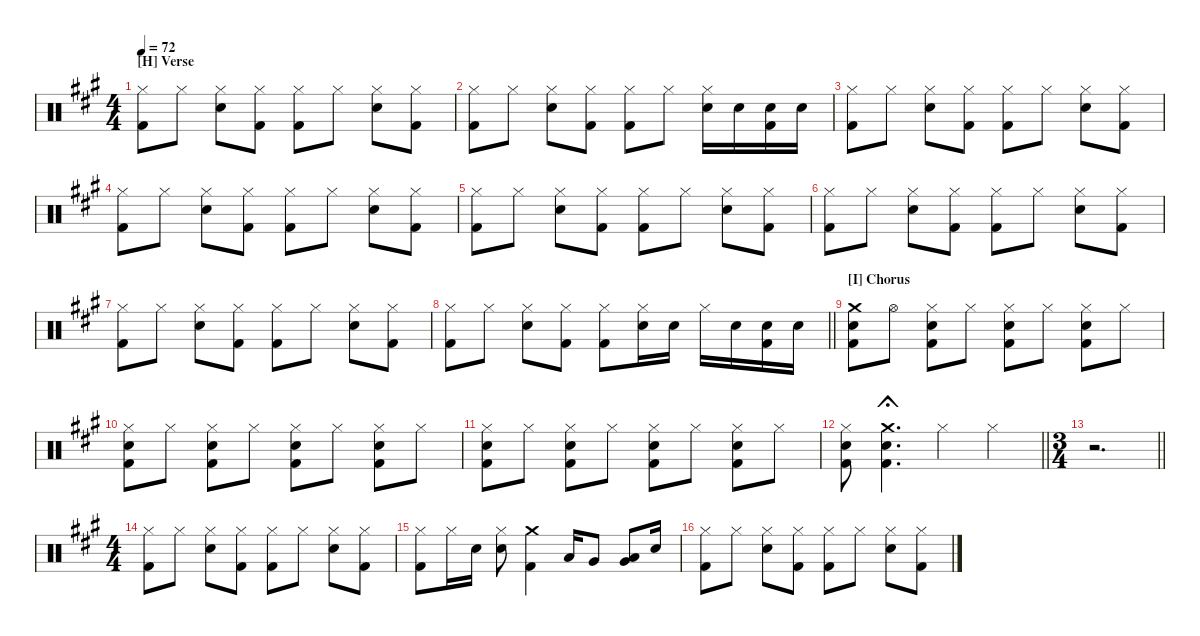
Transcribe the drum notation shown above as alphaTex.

\hideDynamics
\bracketExtendMode nobrackets
\singleTrackTrackNamePolicy hidden
\multiTrackTrackNamePolicy hidden
\otherSystemsTrackNameOrientation horizontal
\track ("Drumkit" "Drums") {defaultSystemsLayout 4 instrument percussion}
\staff {score}
\articulation defaults
\ts (4 4)
\section ("H" "Verse")
\tempo 72
\clef neutral
\ks a
("Hi-Hat (closed)"{acc forcenatural} "Kick (hit) 2"{acc forcenatural}).8{dy mf beam Down} "Hi-Hat (closed)"{acc forcenatural}.8{beam Down} ("Hi-Hat (closed)"{acc forcenatural} "Snare (hit) 2"{acc forcenatural}).8{beam Down} ("Hi-Hat (closed)"{acc forcenatural} "Kick (hit) 2"{acc forcenatural}).8{beam Down} ("Hi-Hat (closed)"{acc forcenatural} "Kick (hit) 2"{acc forcenatural}).8{beam Down} "Hi-Hat (closed)"{acc forcenatural}.8{beam Down} ("Hi-Hat (closed)"{acc forcenatural} "Snare (hit) 2"{acc forcenatural}).8{beam Down} ("Hi-Hat (closed)"{acc forcenatural} "Kick (hit) 2"{acc forcenatural}).8{beam Down} |
("Kick (hit) 2"{acc forcenatural} "Hi-Hat (closed)"{acc forcenatural}).8{beam Down} "Hi-Hat (closed)"{acc forcenatural}.8{beam Down} ("Snare (hit) 2"{acc forcenatural} "Hi-Hat (closed)"{acc forcenatural}).8{beam Down} ("Kick (hit) 2"{acc forcenatural} "Hi-Hat (closed)"{acc forcenatural}).8{beam Down} ("Kick (hit) 2"{acc forcenatural} "Hi-Hat (closed)"{acc forcenatural}).8{beam Down} "Hi-Hat (closed)"{acc forcenatural}.8{beam Down} ("Snare (hit) 2"{acc forcenatural} "Hi-Hat (closed)"{acc forcenatural}).16{beam Down} "Snare (hit) 2"{acc forcenatural}.16{beam Down} ("Snare (hit) 2"{acc forcenatural} "Kick (hit) 2"{acc forcenatural}).16{beam Down} "Snare (hit) 2"{acc forcenatural}.16{beam Down} |
("Hi-Hat (closed)"{acc forcenatural} "Kick (hit) 2"{acc forcenatural}).8{beam Down} "Hi-Hat (closed)"{acc forcenatural}.8{beam Down} ("Hi-Hat (closed)"{acc forcenatural} "Snare (hit) 2"{acc forcenatural}).8{beam Down} ("Hi-Hat (closed)"{acc forcenatural} "Kick (hit) 2"{acc forcenatural}).8{beam Down} ("Hi-Hat (closed)"{acc forcenatural} "Kick (hit) 2"{acc forcenatural}).8{beam Down} "Hi-Hat (closed)"{acc forcenatural}.8{beam Down} ("Hi-Hat (closed)"{acc forcenatural} "Snare (hit) 2"{acc forcenatural}).8{beam Down} ("Hi-Hat (closed)"{acc forcenatural} "Kick (hit) 2"{acc forcenatural}).8{beam Down} |
("Hi-Hat (closed)"{acc forcenatural} "Kick (hit) 2"{acc forcenatural}).8{beam Down} "Hi-Hat (closed)"{acc forcenatural}.8{beam Down} ("Hi-Hat (closed)"{acc forcenatural} "Snare (hit) 2"{acc forcenatural}).8{beam Down} ("Hi-Hat (closed)"{acc forcenatural} "Kick (hit) 2"{acc forcenatural}).8{beam Down} ("Hi-Hat (closed)"{acc forcenatural} "Kick (hit) 2"{acc forcenatural}).8{beam Down} "Hi-Hat (closed)"{acc forcenatural}.8{beam Down} ("Hi-Hat (closed)"{acc forcenatural} "Snare (hit) 2"{acc forcenatural}).8{beam Down} ("Hi-Hat (closed)"{acc forcenatural} "Kick (hit) 2"{acc forcenatural}).8{beam Down} |
("Hi-Hat (closed)"{acc forcenatural} "Kick (hit) 2"{acc forcenatural}).8{beam Down} "Hi-Hat (closed)"{acc forcenatural}.8{beam Down} ("Hi-Hat (closed)"{acc forcenatural} "Snare (hit) 2"{acc forcenatural}).8{beam Down} ("Hi-Hat (closed)"{acc forcenatural} "Kick (hit) 2"{acc forcenatural}).8{beam Down} ("Hi-Hat (closed)"{acc forcenatural} "Kick (hit) 2"{acc forcenatural}).8{beam Down} "Hi-Hat (closed)"{acc forcenatural}.8{beam Down} ("Hi-Hat (closed)"{acc forcenatural} "Snare (hit) 2"{acc forcenatural}).8{beam Down} ("Hi-Hat (closed)"{acc forcenatural} "Kick (hit) 2"{acc forcenatural}).8{beam Down} |
("Hi-Hat (closed)"{acc forcenatural} "Kick (hit) 2"{acc forcenatural}).8{beam Down} "Hi-Hat (closed)"{acc forcenatural}.8{beam Down} ("Hi-Hat (closed)"{acc forcenatural} "Snare (hit) 2"{acc forcenatural}).8{beam Down} ("Hi-Hat (closed)"{acc forcenatural} "Kick (hit) 2"{acc forcenatural}).8{beam Down} ("Hi-Hat (closed)"{acc forcenatural} "Kick (hit) 2"{acc forcenatural}).8{beam Down} "Hi-Hat (closed)"{acc forcenatural}.8{beam Down} ("Hi-Hat (closed)"{acc forcenatural} "Snare (hit) 2"{acc forcenatural}).8{beam Down} ("Hi-Hat (closed)"{acc forcenatural} "Kick (hit) 2"{acc forcenatural}).8{beam Down} |
("Hi-Hat (closed)"{acc forcenatural} "Kick (hit) 2"{acc forcenatural}).8{beam Down} "Hi-Hat (closed)"{acc forcenatural}.8{beam Down} ("Hi-Hat (closed)"{acc forcenatural} "Snare (hit) 2"{acc forcenatural}).8{beam Down} ("Hi-Hat (closed)"{acc forcenatural} "Kick (hit) 2"{acc forcenatural}).8{beam Down} ("Hi-Hat (closed)"{acc forcenatural} "Kick (hit) 2"{acc forcenatural}).8{beam Down} "Hi-Hat (closed)"{acc forcenatural}.8{beam Down} ("Hi-Hat (closed)"{acc forcenatural} "Snare (hit) 2"{acc forcenatural}).8{beam Down} ("Hi-Hat (closed)"{acc forcenatural} "Kick (hit) 2"{acc forcenatural}).8{beam Down} |
\barLineRight lightlight
("Kick (hit) 2"{acc forcenatural} "Hi-Hat (closed)"{acc forcenatural}).8{beam Down} "Hi-Hat (closed)"{acc forcenatural}.8{beam Down} ("Snare (hit) 2"{acc forcenatural} "Hi-Hat (closed)"{acc forcenatural}).8{beam Down} ("Kick (hit) 2"{acc forcenatural} "Hi-Hat (closed)"{acc forcenatural}).8{beam Down} ("Kick (hit) 2"{acc forcenatural} "Hi-Hat (closed)"{acc forcenatural}).8{beam Down} ("Snare (hit) 2"{acc forcenatural} "Hi-Hat (closed)"{acc forcenatural}).16{beam Down} "Snare (hit) 2"{acc forcenatural}.16{beam Down} "Hi-Hat (closed)"{acc forcenatural}.16{beam Down} "Snare (hit) 2"{acc forcenatural}.16{beam Down} ("Snare (hit) 2"{acc forcenatural} "Kick (hit) 2"{acc forcenatural}).16{beam Down} "Snare (hit) 2"{acc forcenatural}.16{beam Down} |
\section ("I" "Chorus")
("Snare (hit) 2"{acc forcenatural} "Crash medium (hit)"{acc forcenatural} "Kick (hit) 2"{acc forcenatural}).8{beam Down} "Hi-Hat (open)"{acc forcenatural}.8{beam Down} ("Kick (hit) 2"{acc forcenatural} "Hi-Hat (closed)"{acc forcenatural} "Snare (hit) 2"{acc forcenatural}).8{beam Down} "Hi-Hat (closed)"{acc forcenatural}.8{beam Down} ("Kick (hit) 2"{acc forcenatural} "Snare (hit) 2"{acc forcenatural} "Hi-Hat (closed)"{acc forcenatural}).8{beam Down} "Hi-Hat (closed)"{acc forcenatural}.8{beam Down} ("Kick (hit) 2"{acc forcenatural} "Snare (hit) 2"{acc forcenatural} "Hi-Hat (closed)"{acc forcenatural}).8{beam Down} "Hi-Hat (closed)"{acc forcenatural}.8{beam Down} |
("Hi-Hat (closed)"{acc forcenatural} "Snare (hit) 2"{acc forcenatural} "Kick (hit) 2"{acc forcenatural}).8{beam Down} "Hi-Hat (closed)"{acc forcenatural}.8{beam Down} ("Kick (hit) 2"{acc forcenatural} "Hi-Hat (closed)"{acc forcenatural} "Snare (hit) 2"{acc forcenatural}).8{beam Down} "Hi-Hat (closed)"{acc forcenatural}.8{beam Down} ("Kick (hit) 2"{acc forcenatural} "Snare (hit) 2"{acc forcenatural} "Hi-Hat (closed)"{acc forcenatural}).8{beam Down} "Hi-Hat (closed)"{acc forcenatural}.8{beam Down} ("Kick (hit) 2"{acc forcenatural} "Snare (hit) 2"{acc forcenatural} "Hi-Hat (closed)"{acc forcenatural}).8{beam Down} "Hi-Hat (closed)"{acc forcenatural}.8{beam Down} |
("Hi-Hat (closed)"{acc forcenatural} "Snare (hit) 2"{acc forcenatural} "Kick (hit) 2"{acc forcenatural}).8{beam Down} "Hi-Hat (closed)"{acc forcenatural}.8{beam Down} ("Kick (hit) 2"{acc forcenatural} "Hi-Hat (closed)"{acc forcenatural} "Snare (hit) 2"{acc forcenatural}).8{beam Down} "Hi-Hat (closed)"{acc forcenatural}.8{beam Down} ("Kick (hit) 2"{acc forcenatural} "Snare (hit) 2"{acc forcenatural} "Hi-Hat (closed)"{acc forcenatural}).8{beam Down} "Hi-Hat (closed)"{acc forcenatural}.8{beam Down} ("Kick (hit) 2"{acc forcenatural} "Snare (hit) 2"{acc forcenatural} "Hi-Hat (closed)"{acc forcenatural}).8{beam Down} "Hi-Hat (closed)"{acc forcenatural}.8{beam Down} |
\barLineRight lightlight
("Hi-Hat (closed)"{acc forcenatural} "Snare (hit) 2"{acc forcenatural} "Kick (hit) 2"{acc forcenatural}).8{beam Down} ("Snare (hit) 2"{acc forcenatural} "Kick (hit) 2"{acc forcenatural} "Crash medium (hit)"{acc forcenatural}).4{d fermata (short 0) beam Down} "Hi-Hat (closed)"{acc forcenatural}.4{beam Down} "Hi-Hat (closed)"{acc forcenatural}.4{beam Down} |
\ts (3 4)
\beaming (8 2 2 2)
\barLineRight lightlight
r.2{d beam Down} |
\ts (4 4)
\beaming (8 2 2 2 2)
("Hi-Hat (closed)"{acc forcenatural} "Kick (hit) 2"{acc forcenatural}).8{beam Down} "Hi-Hat (closed)"{acc forcenatural}.8{beam Down} ("Hi-Hat (closed)"{acc forcenatural} "Snare (hit) 2"{acc forcenatural}).8{beam Down} ("Hi-Hat (closed)"{acc forcenatural} "Kick (hit) 2"{acc forcenatural}).8{beam Down} ("Hi-Hat (closed)"{acc forcenatural} "Kick (hit) 2"{acc forcenatural}).8{beam Down} "Hi-Hat (closed)"{acc forcenatural}.8{beam Down} ("Hi-Hat (closed)"{acc forcenatural} "Snare (hit) 2"{acc forcenatural}).8{beam Down} ("Hi-Hat (closed)"{acc forcenatural} "Kick (hit) 2"{acc forcenatural}).8{beam Down} |
("Hi-Hat (closed)"{acc forcenatural} "Kick (hit) 2"{acc forcenatural}).8{beam Down} "Hi-Hat (closed)"{acc forcenatural}.16{beam Down} "Snare (hit) 2"{acc forcenatural}.16{beam Down} ("Hi-Hat (closed)"{acc forcenatural} "Snare (hit) 2"{acc forcenatural}).8{beam Down} ("Crash medium (hit)"{acc forcenatural} "Kick (hit) 2"{acc forcenatural}).4{beam Down} "Low Tom (hit)"{acc forcenatural}.16{dy ff beam Up} "Very Low Tom (hit)"{acc forcenatural}.8{beam Up} ("Low Tom (hit)"{acc forcenatural} "Very Low Tom (hit)"{acc forcenatural}).8{beam Up} "Snare (hit) 2"{acc forcenatural}.16{dy mf beam Up} |
("Hi-Hat (closed)"{acc forcenatural} "Kick (hit) 2"{acc forcenatural}).8{beam Down} "Hi-Hat (closed)"{acc forcenatural}.8{beam Down} ("Hi-Hat (closed)"{acc forcenatural} "Snare (hit) 2"{acc forcenatural}).8{beam Down} ("Hi-Hat (closed)"{acc forcenatural} "Kick (hit) 2"{acc forcenatural}).8{beam Down} ("Hi-Hat (closed)"{acc forcenatural} "Kick (hit) 2"{acc forcenatural}).8{beam Down} "Hi-Hat (closed)"{acc forcenatural}.8{beam Down} ("Hi-Hat (closed)"{acc forcenatural} "Snare (hit) 2"{acc forcenatural}).8{beam Down} ("Hi-Hat (closed)"{acc forcenatural} "Kick (hit) 2"{acc forcenatural}).8{beam Down}
